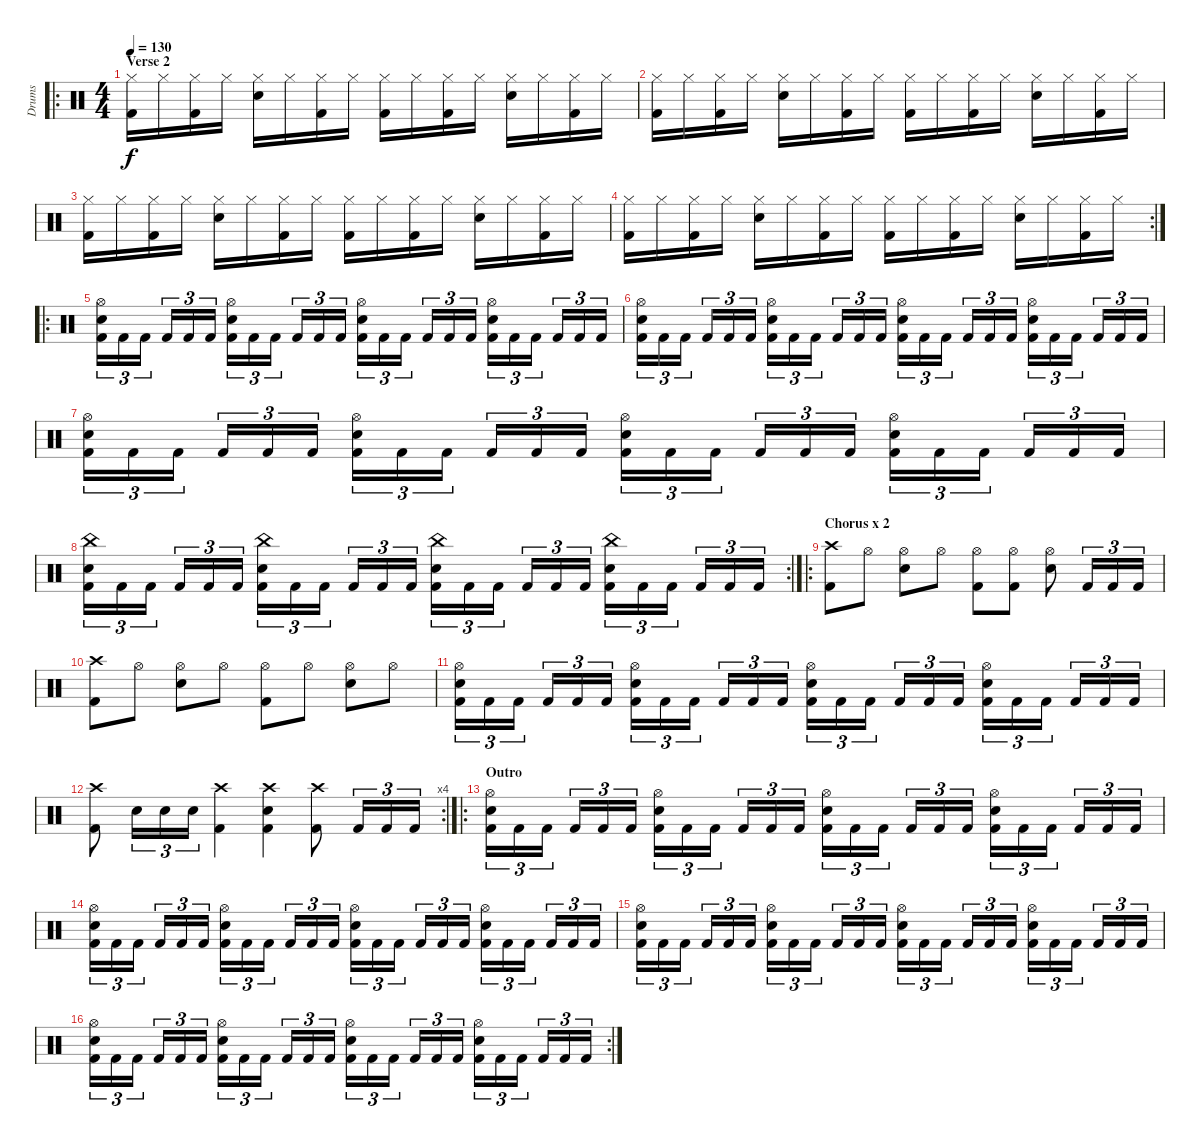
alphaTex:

\track ("Drums" "Drums") {instrument percussion}
\staff {score}
\articulation defaults
\ro
\ts (4 4)
\section ("" "Verse 2")
\tempo 130
\clef neutral
\ks c
("Hi-Hat (closed)" "Kick (hit) 2").16{dy f} "Hi-Hat (closed)".16 ("Hi-Hat (closed)" "Kick (hit) 2").16 "Hi-Hat (closed)".16 ("Hi-Hat (closed)" "Electric Snare (hit)").16 "Hi-Hat (closed)".16 ("Hi-Hat (closed)" "Kick (hit) 2").16 "Hi-Hat (closed)".16 ("Hi-Hat (closed)" "Kick (hit) 2").16 "Hi-Hat (closed)".16 ("Hi-Hat (closed)" "Kick (hit) 2").16 "Hi-Hat (closed)".16 ("Hi-Hat (closed)" "Electric Snare (hit)").16 "Hi-Hat (closed)".16 ("Hi-Hat (closed)" "Kick (hit) 2").16 "Hi-Hat (closed)".16 |
("Hi-Hat (closed)" "Kick (hit) 2").16 "Hi-Hat (closed)".16 ("Hi-Hat (closed)" "Kick (hit) 2").16 "Hi-Hat (closed)".16 ("Hi-Hat (closed)" "Electric Snare (hit)").16 "Hi-Hat (closed)".16 ("Hi-Hat (closed)" "Kick (hit) 2").16 "Hi-Hat (closed)".16 ("Hi-Hat (closed)" "Kick (hit) 2").16 "Hi-Hat (closed)".16 ("Hi-Hat (closed)" "Kick (hit) 2").16 "Hi-Hat (closed)".16 ("Hi-Hat (closed)" "Electric Snare (hit)").16 "Hi-Hat (closed)".16 ("Hi-Hat (closed)" "Kick (hit) 2").16 "Hi-Hat (closed)".16 |
("Hi-Hat (closed)" "Kick (hit) 2").16 "Hi-Hat (closed)".16 ("Hi-Hat (closed)" "Kick (hit) 2").16 "Hi-Hat (closed)".16 ("Hi-Hat (closed)" "Electric Snare (hit)").16 "Hi-Hat (closed)".16 ("Hi-Hat (closed)" "Kick (hit) 2").16 "Hi-Hat (closed)".16 ("Hi-Hat (closed)" "Kick (hit) 2").16 "Hi-Hat (closed)".16 ("Hi-Hat (closed)" "Kick (hit) 2").16 "Hi-Hat (closed)".16 ("Hi-Hat (closed)" "Electric Snare (hit)").16 "Hi-Hat (closed)".16 ("Hi-Hat (closed)" "Kick (hit) 2").16 "Hi-Hat (closed)".16 |
\rc 2
("Hi-Hat (closed)" "Kick (hit) 2").16 "Hi-Hat (closed)".16 ("Hi-Hat (closed)" "Kick (hit) 2").16 "Hi-Hat (closed)".16 ("Hi-Hat (closed)" "Electric Snare (hit)").16 "Hi-Hat (closed)".16 ("Hi-Hat (closed)" "Kick (hit) 2").16 "Hi-Hat (closed)".16 ("Hi-Hat (closed)" "Kick (hit) 2").16 "Hi-Hat (closed)".16 ("Hi-Hat (closed)" "Kick (hit) 2").16 "Hi-Hat (closed)".16 ("Hi-Hat (closed)" "Electric Snare (hit)").16 "Hi-Hat (closed)".16 ("Hi-Hat (closed)" "Kick (hit) 2").16 "Hi-Hat (closed)".16 |
\ro
("Kick (hit) 2" "Hi-Hat (open)" "Electric Snare (hit)").16{tu (3 2)} "Kick (hit) 2".16{tu (3 2)} "Kick (hit) 2".16{tu (3 2)} "Kick (hit) 2".16{tu (3 2)} "Kick (hit) 2".16{tu (3 2)} "Kick (hit) 2".16{tu (3 2)} ("Kick (hit) 2" "Hi-Hat (open)" "Electric Snare (hit)").16{tu (3 2)} "Kick (hit) 2".16{tu (3 2)} "Kick (hit) 2".16{tu (3 2)} "Kick (hit) 2".16{tu (3 2)} "Kick (hit) 2".16{tu (3 2)} "Kick (hit) 2".16{tu (3 2)} ("Kick (hit) 2" "Hi-Hat (open)" "Electric Snare (hit)").16{tu (3 2)} "Kick (hit) 2".16{tu (3 2)} "Kick (hit) 2".16{tu (3 2)} "Kick (hit) 2".16{tu (3 2)} "Kick (hit) 2".16{tu (3 2)} "Kick (hit) 2".16{tu (3 2)} ("Kick (hit) 2" "Hi-Hat (open)" "Electric Snare (hit)").16{tu (3 2)} "Kick (hit) 2".16{tu (3 2)} "Kick (hit) 2".16{tu (3 2)} "Kick (hit) 2".16{tu (3 2)} "Kick (hit) 2".16{tu (3 2)} "Kick (hit) 2".16{tu (3 2)} |
("Kick (hit) 2" "Hi-Hat (open)" "Electric Snare (hit)").16{tu (3 2)} "Kick (hit) 2".16{tu (3 2)} "Kick (hit) 2".16{tu (3 2)} "Kick (hit) 2".16{tu (3 2)} "Kick (hit) 2".16{tu (3 2)} "Kick (hit) 2".16{tu (3 2)} ("Kick (hit) 2" "Hi-Hat (open)" "Electric Snare (hit)").16{tu (3 2)} "Kick (hit) 2".16{tu (3 2)} "Kick (hit) 2".16{tu (3 2)} "Kick (hit) 2".16{tu (3 2)} "Kick (hit) 2".16{tu (3 2)} "Kick (hit) 2".16{tu (3 2)} ("Kick (hit) 2" "Hi-Hat (open)" "Electric Snare (hit)").16{tu (3 2)} "Kick (hit) 2".16{tu (3 2)} "Kick (hit) 2".16{tu (3 2)} "Kick (hit) 2".16{tu (3 2)} "Kick (hit) 2".16{tu (3 2)} "Kick (hit) 2".16{tu (3 2)} ("Kick (hit) 2" "Hi-Hat (open)" "Electric Snare (hit)").16{tu (3 2)} "Kick (hit) 2".16{tu (3 2)} "Kick (hit) 2".16{tu (3 2)} "Kick (hit) 2".16{tu (3 2)} "Kick (hit) 2".16{tu (3 2)} "Kick (hit) 2".16{tu (3 2)} |
("Kick (hit) 2" "Hi-Hat (open)" "Electric Snare (hit)").16{tu (3 2)} "Kick (hit) 2".16{tu (3 2)} "Kick (hit) 2".16{tu (3 2)} "Kick (hit) 2".16{tu (3 2)} "Kick (hit) 2".16{tu (3 2)} "Kick (hit) 2".16{tu (3 2)} ("Kick (hit) 2" "Hi-Hat (open)" "Electric Snare (hit)").16{tu (3 2)} "Kick (hit) 2".16{tu (3 2)} "Kick (hit) 2".16{tu (3 2)} "Kick (hit) 2".16{tu (3 2)} "Kick (hit) 2".16{tu (3 2)} "Kick (hit) 2".16{tu (3 2)} ("Kick (hit) 2" "Hi-Hat (open)" "Electric Snare (hit)").16{tu (3 2)} "Kick (hit) 2".16{tu (3 2)} "Kick (hit) 2".16{tu (3 2)} "Kick (hit) 2".16{tu (3 2)} "Kick (hit) 2".16{tu (3 2)} "Kick (hit) 2".16{tu (3 2)} ("Kick (hit) 2" "Hi-Hat (open)" "Electric Snare (hit)").16{tu (3 2)} "Kick (hit) 2".16{tu (3 2)} "Kick (hit) 2".16{tu (3 2)} "Kick (hit) 2".16{tu (3 2)} "Kick (hit) 2".16{tu (3 2)} "Kick (hit) 2".16{tu (3 2)} |
\rc 2
("Kick (hit) 2" "China (hit)" "Electric Snare (hit)").16{tu (3 2)} "Kick (hit) 2".16{tu (3 2)} "Kick (hit) 2".16{tu (3 2)} "Kick (hit) 2".16{tu (3 2)} "Kick (hit) 2".16{tu (3 2)} "Kick (hit) 2".16{tu (3 2)} ("Kick (hit) 2" "China (hit)" "Electric Snare (hit)").16{tu (3 2)} "Kick (hit) 2".16{tu (3 2)} "Kick (hit) 2".16{tu (3 2)} "Kick (hit) 2".16{tu (3 2)} "Kick (hit) 2".16{tu (3 2)} "Kick (hit) 2".16{tu (3 2)} ("Kick (hit) 2" "China (hit)" "Electric Snare (hit)").16{tu (3 2)} "Kick (hit) 2".16{tu (3 2)} "Kick (hit) 2".16{tu (3 2)} "Kick (hit) 2".16{tu (3 2)} "Kick (hit) 2".16{tu (3 2)} "Kick (hit) 2".16{tu (3 2)} ("Kick (hit) 2" "China (hit)" "Electric Snare (hit)").16{tu (3 2)} "Kick (hit) 2".16{tu (3 2)} "Kick (hit) 2".16{tu (3 2)} "Kick (hit) 2".16{tu (3 2)} "Kick (hit) 2".16{tu (3 2)} "Kick (hit) 2".16{tu (3 2)} |
\ro
\section ("" "Chorus x 2")
("Crash high (hit)" "Kick (hit) 2").8 "Hi-Hat (open)".8 ("Hi-Hat (open)" "Electric Snare (hit)").8 "Hi-Hat (open)".8 ("Hi-Hat (open)" "Kick (hit) 2").8 ("Hi-Hat (open)" "Kick (hit) 2").8 ("Hi-Hat (open)" "Electric Snare (hit)").8 "Kick (hit) 2".16{tu (3 2)} "Kick (hit) 2".16{tu (3 2)} "Kick (hit) 2".16{tu (3 2)} |
("Crash high (hit)" "Kick (hit) 2").8 "Hi-Hat (open)".8 ("Hi-Hat (open)" "Electric Snare (hit)").8 "Hi-Hat (open)".8 ("Hi-Hat (open)" "Kick (hit) 2").8 "Hi-Hat (open)".8 ("Hi-Hat (open)" "Electric Snare (hit)").8 "Hi-Hat (open)".8 |
("Kick (hit) 2" "Electric Snare (hit)" "Hi-Hat (open)").16{tu (3 2)} "Kick (hit) 2".16{tu (3 2)} "Kick (hit) 2".16{tu (3 2)} "Kick (hit) 2".16{tu (3 2)} "Kick (hit) 2".16{tu (3 2)} "Kick (hit) 2".16{tu (3 2)} ("Kick (hit) 2" "Electric Snare (hit)" "Hi-Hat (open)").16{tu (3 2)} "Kick (hit) 2".16{tu (3 2)} "Kick (hit) 2".16{tu (3 2)} "Kick (hit) 2".16{tu (3 2)} "Kick (hit) 2".16{tu (3 2)} "Kick (hit) 2".16{tu (3 2)} ("Kick (hit) 2" "Electric Snare (hit)" "Hi-Hat (open)").16{tu (3 2)} "Kick (hit) 2".16{tu (3 2)} "Kick (hit) 2".16{tu (3 2)} "Kick (hit) 2".16{tu (3 2)} "Kick (hit) 2".16{tu (3 2)} "Kick (hit) 2".16{tu (3 2)} ("Kick (hit) 2" "Electric Snare (hit)" "Hi-Hat (open)").16{tu (3 2)} "Kick (hit) 2".16{tu (3 2)} "Kick (hit) 2".16{tu (3 2)} "Kick (hit) 2".16{tu (3 2)} "Kick (hit) 2".16{tu (3 2)} "Kick (hit) 2".16{tu (3 2)} |
\rc 4
("Crash high (hit)" "Kick (hit) 2").8 "Electric Snare (hit)".16{tu (3 2)} "Electric Snare (hit)".16{tu (3 2)} "Electric Snare (hit)".16{tu (3 2)} ("Crash high (hit)" "Kick (hit) 2").4 ("Crash high (hit)" "Kick (hit) 2" "Electric Snare (hit)").4 ("Crash high (hit)" "Kick (hit) 2").8 "Kick (hit) 2".16{tu (3 2)} "Kick (hit) 2".16{tu (3 2)} "Kick (hit) 2".16{tu (3 2)} |
\ro
\section ("" "Outro")
("Kick (hit) 2" "Electric Snare (hit)" "Hi-Hat (open)").16{tu (3 2)} "Kick (hit) 2".16{tu (3 2)} "Kick (hit) 2".16{tu (3 2)} "Kick (hit) 2".16{tu (3 2)} "Kick (hit) 2".16{tu (3 2)} "Kick (hit) 2".16{tu (3 2)} ("Kick (hit) 2" "Electric Snare (hit)" "Hi-Hat (open)").16{tu (3 2)} "Kick (hit) 2".16{tu (3 2)} "Kick (hit) 2".16{tu (3 2)} "Kick (hit) 2".16{tu (3 2)} "Kick (hit) 2".16{tu (3 2)} "Kick (hit) 2".16{tu (3 2)} ("Kick (hit) 2" "Electric Snare (hit)" "Hi-Hat (open)").16{tu (3 2)} "Kick (hit) 2".16{tu (3 2)} "Kick (hit) 2".16{tu (3 2)} "Kick (hit) 2".16{tu (3 2)} "Kick (hit) 2".16{tu (3 2)} "Kick (hit) 2".16{tu (3 2)} ("Kick (hit) 2" "Electric Snare (hit)" "Hi-Hat (open)").16{tu (3 2)} "Kick (hit) 2".16{tu (3 2)} "Kick (hit) 2".16{tu (3 2)} "Kick (hit) 2".16{tu (3 2)} "Kick (hit) 2".16{tu (3 2)} "Kick (hit) 2".16{tu (3 2)} |
("Kick (hit) 2" "Electric Snare (hit)" "Hi-Hat (open)").16{tu (3 2)} "Kick (hit) 2".16{tu (3 2)} "Kick (hit) 2".16{tu (3 2)} "Kick (hit) 2".16{tu (3 2)} "Kick (hit) 2".16{tu (3 2)} "Kick (hit) 2".16{tu (3 2)} ("Kick (hit) 2" "Electric Snare (hit)" "Hi-Hat (open)").16{tu (3 2)} "Kick (hit) 2".16{tu (3 2)} "Kick (hit) 2".16{tu (3 2)} "Kick (hit) 2".16{tu (3 2)} "Kick (hit) 2".16{tu (3 2)} "Kick (hit) 2".16{tu (3 2)} ("Kick (hit) 2" "Electric Snare (hit)" "Hi-Hat (open)").16{tu (3 2)} "Kick (hit) 2".16{tu (3 2)} "Kick (hit) 2".16{tu (3 2)} "Kick (hit) 2".16{tu (3 2)} "Kick (hit) 2".16{tu (3 2)} "Kick (hit) 2".16{tu (3 2)} ("Kick (hit) 2" "Electric Snare (hit)" "Hi-Hat (open)").16{tu (3 2)} "Kick (hit) 2".16{tu (3 2)} "Kick (hit) 2".16{tu (3 2)} "Kick (hit) 2".16{tu (3 2)} "Kick (hit) 2".16{tu (3 2)} "Kick (hit) 2".16{tu (3 2)} |
("Kick (hit) 2" "Electric Snare (hit)" "Hi-Hat (open)").16{tu (3 2)} "Kick (hit) 2".16{tu (3 2)} "Kick (hit) 2".16{tu (3 2)} "Kick (hit) 2".16{tu (3 2)} "Kick (hit) 2".16{tu (3 2)} "Kick (hit) 2".16{tu (3 2)} ("Kick (hit) 2" "Electric Snare (hit)" "Hi-Hat (open)").16{tu (3 2)} "Kick (hit) 2".16{tu (3 2)} "Kick (hit) 2".16{tu (3 2)} "Kick (hit) 2".16{tu (3 2)} "Kick (hit) 2".16{tu (3 2)} "Kick (hit) 2".16{tu (3 2)} ("Kick (hit) 2" "Electric Snare (hit)" "Hi-Hat (open)").16{tu (3 2)} "Kick (hit) 2".16{tu (3 2)} "Kick (hit) 2".16{tu (3 2)} "Kick (hit) 2".16{tu (3 2)} "Kick (hit) 2".16{tu (3 2)} "Kick (hit) 2".16{tu (3 2)} ("Kick (hit) 2" "Electric Snare (hit)" "Hi-Hat (open)").16{tu (3 2)} "Kick (hit) 2".16{tu (3 2)} "Kick (hit) 2".16{tu (3 2)} "Kick (hit) 2".16{tu (3 2)} "Kick (hit) 2".16{tu (3 2)} "Kick (hit) 2".16{tu (3 2)} |
\rc 2
("Kick (hit) 2" "Electric Snare (hit)" "Hi-Hat (open)").16{tu (3 2)} "Kick (hit) 2".16{tu (3 2)} "Kick (hit) 2".16{tu (3 2)} "Kick (hit) 2".16{tu (3 2)} "Kick (hit) 2".16{tu (3 2)} "Kick (hit) 2".16{tu (3 2)} ("Kick (hit) 2" "Electric Snare (hit)" "Hi-Hat (open)").16{tu (3 2)} "Kick (hit) 2".16{tu (3 2)} "Kick (hit) 2".16{tu (3 2)} "Kick (hit) 2".16{tu (3 2)} "Kick (hit) 2".16{tu (3 2)} "Kick (hit) 2".16{tu (3 2)} ("Kick (hit) 2" "Electric Snare (hit)" "Hi-Hat (open)").16{tu (3 2)} "Kick (hit) 2".16{tu (3 2)} "Kick (hit) 2".16{tu (3 2)} "Kick (hit) 2".16{tu (3 2)} "Kick (hit) 2".16{tu (3 2)} "Kick (hit) 2".16{tu (3 2)} ("Kick (hit) 2" "Electric Snare (hit)" "Hi-Hat (open)").16{tu (3 2)} "Kick (hit) 2".16{tu (3 2)} "Kick (hit) 2".16{tu (3 2)} "Kick (hit) 2".16{tu (3 2)} "Kick (hit) 2".16{tu (3 2)} "Kick (hit) 2".16{tu (3 2)}
